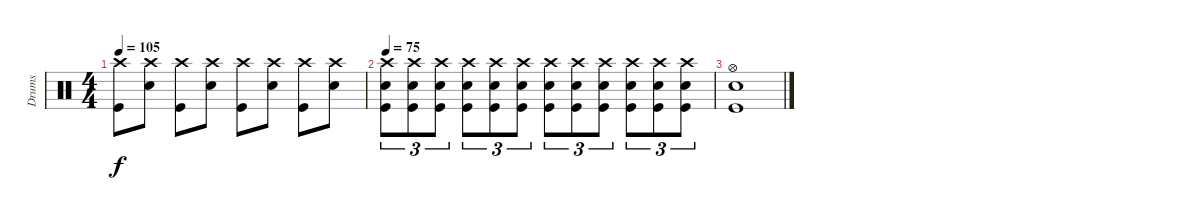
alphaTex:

\track ("Drums" "Drums") {instrument percussion}
\staff
\articulation defaults
\ts (4 4)
\tempo 105
\clef neutral
\ks c
("Crash high (hit)" "Kick (hit)").8{dy f} ("Crash high (hit)" "Snare (hit) 2").8 ("Crash high (hit)" "Kick (hit)").8 ("Crash high (hit)" "Snare (hit) 2").8 ("Crash high (hit)" "Kick (hit)").8 ("Crash high (hit)" "Snare (hit) 2").8 ("Crash high (hit)" "Kick (hit)").8 ("Crash high (hit)" "Snare (hit) 2").8 |
\tempo 75
("Crash high (hit)" "Snare (hit) 2" "Kick (hit)").8{tu (3 2)} ("Crash high (hit)" "Snare (hit) 2" "Kick (hit)").8{tu (3 2)} ("Crash high (hit)" "Snare (hit) 2" "Kick (hit)").8{tu (3 2)} ("Crash high (hit)" "Snare (hit) 2" "Kick (hit)").8{tu (3 2)} ("Crash high (hit)" "Snare (hit) 2" "Kick (hit)").8{tu (3 2)} ("Crash high (hit)" "Snare (hit) 2" "Kick (hit)").8{tu (3 2)} ("Crash high (hit)" "Snare (hit) 2" "Kick (hit)").8{tu (3 2)} ("Crash high (hit)" "Snare (hit) 2" "Kick (hit)").8{tu (3 2)} ("Crash high (hit)" "Snare (hit) 2" "Kick (hit)").8{tu (3 2)} ("Crash high (hit)" "Snare (hit) 2" "Kick (hit)").8{tu (3 2)} ("Crash high (hit)" "Snare (hit) 2" "Kick (hit)").8{tu (3 2)} ("Crash high (hit)" "Snare (hit) 2" "Kick (hit)").8{tu (3 2)} |
("Hi-Hat (open)" "Snare (hit) 2" "Kick (hit)").1
